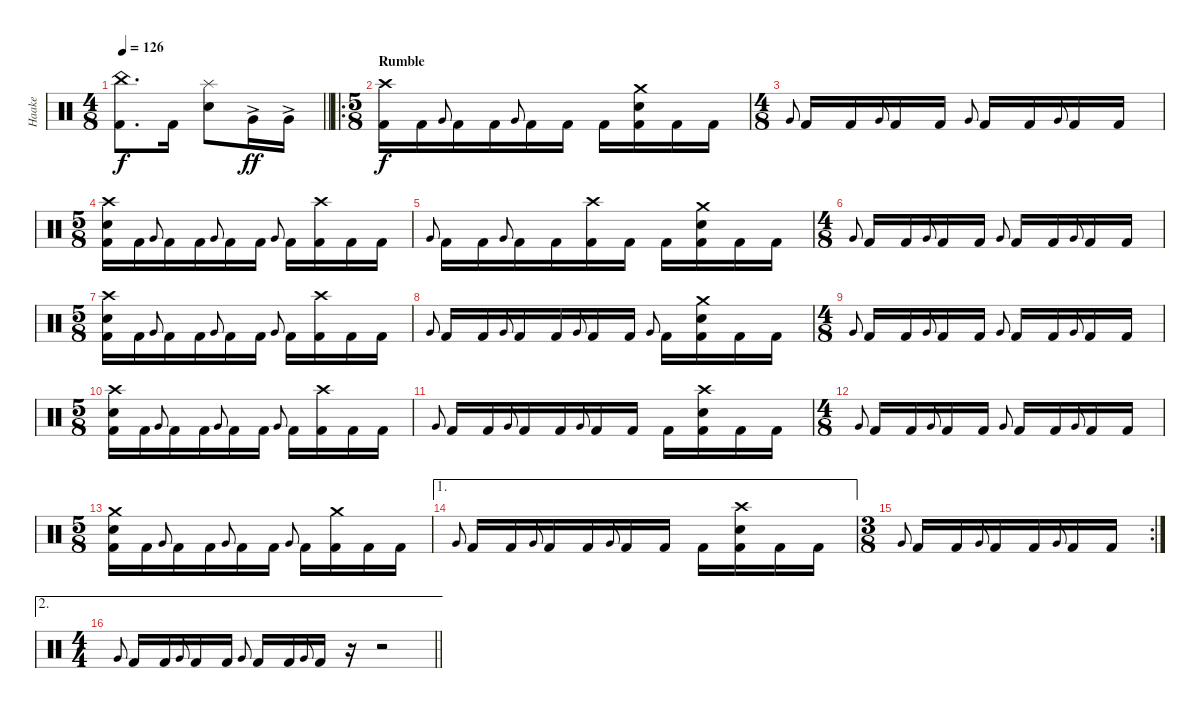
\track ("Haake" "Haake") {instrument percussion}
\staff {score}
\articulation defaults
\ts (4 8)
\tempo 126
\clef neutral
\barLineRight lightlight
\ks c
("China (hit)" "Kick (hit) 2").8{d dy f} "Kick (hit) 2".16 ("Splash (hit)" "Electric Snare (hit)").8 "Very Low Tom (hit)"{ac}.16{dy ff} "Very Low Tom (hit)"{ac}.16 |
\ro
\ts (5 8)
\section ("" "Rumble")
("Crash high (hit)" "Kick (hit) 2").16{dy f} "Kick (hit) 2".16 "Very Low Tom (hit)".8{gr onbeat} "Kick (hit) 2".16 "Kick (hit) 2".16 "Very Low Tom (hit)".8{gr onbeat} "Kick (hit) 2".16 "Kick (hit) 2".16 "Kick (hit) 2".16 ("Crash medium (hit)" "Electric Snare (hit)" "Kick (hit) 2").16 "Kick (hit) 2".16 "Kick (hit) 2".16 |
\ts (4 8)
"Very Low Tom (hit)".8{gr onbeat} "Kick (hit) 2".16 "Kick (hit) 2".16 "Very Low Tom (hit)".8{gr onbeat} "Kick (hit) 2".16 "Kick (hit) 2".16 "Very Low Tom (hit)".8{gr onbeat} "Kick (hit) 2".16 "Kick (hit) 2".16 "Very Low Tom (hit)".8{gr onbeat} "Kick (hit) 2".16 "Kick (hit) 2".16 |
\ts (5 8)
("Crash high (hit)" "Electric Snare (hit)" "Kick (hit) 2").16 "Kick (hit) 2".16 "Very Low Tom (hit)".8{gr onbeat} "Kick (hit) 2".16 "Kick (hit) 2".16 "Very Low Tom (hit)".8{gr onbeat} "Kick (hit) 2".16 "Kick (hit) 2".16 "Very Low Tom (hit)".8{gr onbeat} "Kick (hit) 2".16 ("Crash high (hit)" "Kick (hit) 2").16 "Kick (hit) 2".16 "Kick (hit) 2".16 |
"Very Low Tom (hit)".8{gr onbeat} "Kick (hit) 2".16 "Kick (hit) 2".16 "Very Low Tom (hit)".8{gr onbeat} "Kick (hit) 2".16 "Kick (hit) 2".16 ("Crash high (hit)" "Kick (hit) 2").16 "Kick (hit) 2".16 "Kick (hit) 2".16 ("Crash medium (hit)" "Electric Snare (hit)" "Kick (hit) 2").16 "Kick (hit) 2".16 "Kick (hit) 2".16 |
\ts (4 8)
"Very Low Tom (hit)".8{gr onbeat} "Kick (hit) 2".16 "Kick (hit) 2".16 "Very Low Tom (hit)".8{gr onbeat} "Kick (hit) 2".16 "Kick (hit) 2".16 "Very Low Tom (hit)".8{gr onbeat} "Kick (hit) 2".16 "Kick (hit) 2".16 "Very Low Tom (hit)".8{gr onbeat} "Kick (hit) 2".16 "Kick (hit) 2".16 |
\ts (5 8)
("Crash high (hit)" "Electric Snare (hit)" "Kick (hit) 2").16 "Kick (hit) 2".16 "Very Low Tom (hit)".8{gr onbeat} "Kick (hit) 2".16 "Kick (hit) 2".16 "Very Low Tom (hit)".8{gr onbeat} "Kick (hit) 2".16 "Kick (hit) 2".16 "Very Low Tom (hit)".8{gr onbeat} "Kick (hit) 2".16 ("Crash high (hit)" "Kick (hit) 2").16 "Kick (hit) 2".16 "Kick (hit) 2".16 |
"Very Low Tom (hit)".8{gr onbeat} "Kick (hit) 2".16 "Kick (hit) 2".16 "Very Low Tom (hit)".8{gr onbeat} "Kick (hit) 2".16 "Kick (hit) 2".16 "Very Low Tom (hit)".8{gr onbeat} "Kick (hit) 2".16 "Kick (hit) 2".16 "Very Low Tom (hit)".8{gr onbeat} "Kick (hit) 2".16 ("Crash medium (hit)" "Electric Snare (hit)" "Kick (hit) 2").16 "Kick (hit) 2".16 "Kick (hit) 2".16 |
\ts (4 8)
"Very Low Tom (hit)".8{gr onbeat} "Kick (hit) 2".16 "Kick (hit) 2".16 "Very Low Tom (hit)".8{gr onbeat} "Kick (hit) 2".16 "Kick (hit) 2".16 "Very Low Tom (hit)".8{gr onbeat} "Kick (hit) 2".16 "Kick (hit) 2".16 "Very Low Tom (hit)".8{gr onbeat} "Kick (hit) 2".16 "Kick (hit) 2".16 |
\ts (5 8)
("Crash high (hit)" "Electric Snare (hit)" "Kick (hit) 2").16 "Kick (hit) 2".16 "Very Low Tom (hit)".8{gr onbeat} "Kick (hit) 2".16 "Kick (hit) 2".16 "Very Low Tom (hit)".8{gr onbeat} "Kick (hit) 2".16 "Kick (hit) 2".16 "Very Low Tom (hit)".8{gr onbeat} "Kick (hit) 2".16 ("Crash high (hit)" "Kick (hit) 2").16 "Kick (hit) 2".16 "Kick (hit) 2".16 |
"Very Low Tom (hit)".8{gr onbeat} "Kick (hit) 2".16 "Kick (hit) 2".16 "Very Low Tom (hit)".8{gr onbeat} "Kick (hit) 2".16 "Kick (hit) 2".16 "Very Low Tom (hit)".8{gr onbeat} "Kick (hit) 2".16 "Kick (hit) 2".16 "Kick (hit) 2".16 ("Crash high (hit)" "Electric Snare (hit)" "Kick (hit) 2").16 "Kick (hit) 2".16 "Kick (hit) 2".16 |
\ts (4 8)
"Very Low Tom (hit)".8{gr onbeat} "Kick (hit) 2".16 "Kick (hit) 2".16 "Very Low Tom (hit)".8{gr onbeat} "Kick (hit) 2".16 "Kick (hit) 2".16 "Very Low Tom (hit)".8{gr onbeat} "Kick (hit) 2".16 "Kick (hit) 2".16 "Very Low Tom (hit)".8{gr onbeat} "Kick (hit) 2".16 "Kick (hit) 2".16 |
\ts (5 8)
("Crash medium (hit)" "Electric Snare (hit)" "Kick (hit) 2").16 "Kick (hit) 2".16 "Very Low Tom (hit)".8{gr onbeat} "Kick (hit) 2".16 "Kick (hit) 2".16 "Very Low Tom (hit)".8{gr onbeat} "Kick (hit) 2".16 "Kick (hit) 2".16 "Very Low Tom (hit)".8{gr onbeat} "Kick (hit) 2".16 ("Crash medium (hit)" "Kick (hit) 2").16 "Kick (hit) 2".16 "Kick (hit) 2".16 |
\ae 1 "Very Low Tom (hit)".8{gr onbeat} "Kick (hit) 2".16 "Kick (hit) 2".16 "Very Low Tom (hit)".8{gr onbeat} "Kick (hit) 2".16 "Kick (hit) 2".16 "Very Low Tom (hit)".8{gr onbeat} "Kick (hit) 2".16 "Kick (hit) 2".16 "Kick (hit) 2".16
("Crash high (hit)" "Electric Snare (hit)" "Kick (hit) 2").16 "Kick (hit) 2".16 "Kick (hit) 2".16 |
\rc 2
\ts (3 8)
"Very Low Tom (hit)".8{gr onbeat} "Kick (hit) 2".16 "Kick (hit) 2".16 "Very Low Tom (hit)".8{gr onbeat} "Kick (hit) 2".16 "Kick (hit) 2".16 "Very Low Tom (hit)".8{gr onbeat} "Kick (hit) 2".16 "Kick (hit) 2".16 |
\ae 2
\ts (4 4)
\barLineRight lightlight "Very Low Tom (hit)".8{gr onbeat} "Kick (hit) 2".16 "Kick (hit) 2".16 "Very Low Tom (hit)".8{gr onbeat} "Kick (hit) 2".16 "Kick (hit) 2".16 "Very Low Tom (hit)".8{gr onbeat} "Kick (hit) 2".16 "Kick (hit) 2".16 "Very Low Tom (hit)".8{gr onbeat} "Kick (hit) 2".16
r.16 r.2
